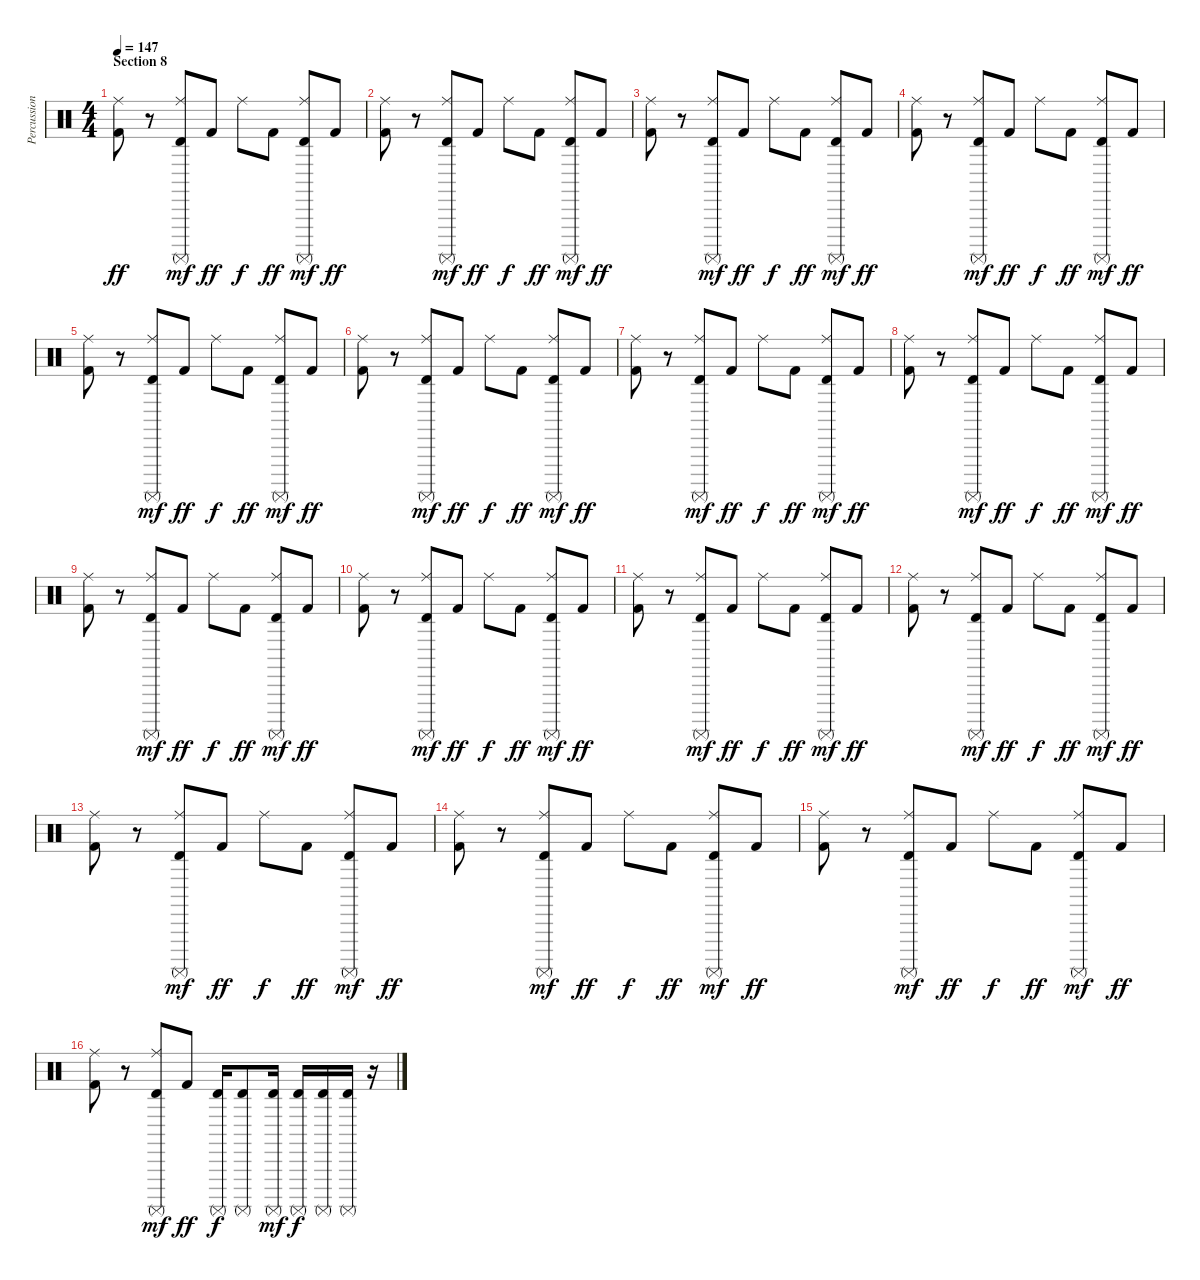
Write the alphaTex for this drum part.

\track ("Percussion" "Percussion") {instrument percussion}
\staff {score}
\articulation defaults
\ts (4 4)
\section ("" "Section 8")
\tempo 147
\clef neutral
\ks c
("Ride (middle)" "Kick (hit) 2").8{dy ff} r.8 ("Ride (middle)" "Surdo (mute)" "Timbale high (hit)").8{dy mf} "Kick (hit) 2".8{dy ff} "Ride (middle)".8{dy f} "Kick (hit) 2".8{dy ff} ("Ride (middle)" "Surdo (mute)" "Timbale high (hit)").8{dy mf} "Kick (hit) 2".8{dy ff} |
("Ride (middle)" "Kick (hit) 2").8 r.8 ("Ride (middle)" "Surdo (mute)" "Timbale high (hit)").8{dy mf} "Kick (hit) 2".8{dy ff} "Ride (middle)".8{dy f} "Kick (hit) 2".8{dy ff} ("Ride (middle)" "Surdo (mute)" "Timbale high (hit)").8{dy mf} "Kick (hit) 2".8{dy ff} |
("Ride (middle)" "Kick (hit) 2").8 r.8 ("Ride (middle)" "Surdo (mute)" "Timbale high (hit)").8{dy mf} "Kick (hit) 2".8{dy ff} "Ride (middle)".8{dy f} "Kick (hit) 2".8{dy ff} ("Ride (middle)" "Surdo (mute)" "Timbale high (hit)").8{dy mf} "Kick (hit) 2".8{dy ff} |
("Ride (middle)" "Kick (hit) 2").8 r.8 ("Ride (middle)" "Surdo (mute)" "Timbale high (hit)").8{dy mf} "Kick (hit) 2".8{dy ff} "Ride (middle)".8{dy f} "Kick (hit) 2".8{dy ff} ("Ride (middle)" "Surdo (mute)" "Timbale high (hit)").8{dy mf} "Kick (hit) 2".8{dy ff} |
("Ride (middle)" "Kick (hit) 2").8 r.8 ("Ride (middle)" "Surdo (mute)" "Timbale high (hit)").8{dy mf} "Kick (hit) 2".8{dy ff} "Ride (middle)".8{dy f} "Kick (hit) 2".8{dy ff} ("Ride (middle)" "Surdo (mute)" "Timbale high (hit)").8{dy mf} "Kick (hit) 2".8{dy ff} |
("Ride (middle)" "Kick (hit) 2").8 r.8 ("Ride (middle)" "Surdo (mute)" "Timbale high (hit)").8{dy mf} "Kick (hit) 2".8{dy ff} "Ride (middle)".8{dy f} "Kick (hit) 2".8{dy ff} ("Ride (middle)" "Surdo (mute)" "Timbale high (hit)").8{dy mf} "Kick (hit) 2".8{dy ff} |
("Ride (middle)" "Kick (hit) 2").8 r.8 ("Ride (middle)" "Surdo (mute)" "Timbale high (hit)").8{dy mf} "Kick (hit) 2".8{dy ff} "Ride (middle)".8{dy f} "Kick (hit) 2".8{dy ff} ("Ride (middle)" "Surdo (mute)" "Timbale high (hit)").8{dy mf} "Kick (hit) 2".8{dy ff} |
("Ride (middle)" "Kick (hit) 2").8 r.8 ("Ride (middle)" "Surdo (mute)" "Timbale high (hit)").8{dy mf} "Kick (hit) 2".8{dy ff} "Ride (middle)".8{dy f} "Kick (hit) 2".8{dy ff} ("Ride (middle)" "Surdo (mute)" "Timbale high (hit)").8{dy mf} "Kick (hit) 2".8{dy ff} |
("Ride (middle)" "Kick (hit) 2").8 r.8 ("Ride (middle)" "Surdo (mute)" "Timbale high (hit)").8{dy mf} "Kick (hit) 2".8{dy ff} "Ride (middle)".8{dy f} "Kick (hit) 2".8{dy ff} ("Ride (middle)" "Surdo (mute)" "Timbale high (hit)").8{dy mf} "Kick (hit) 2".8{dy ff} |
("Ride (middle)" "Kick (hit) 2").8 r.8 ("Ride (middle)" "Surdo (mute)" "Timbale high (hit)").8{dy mf} "Kick (hit) 2".8{dy ff} "Ride (middle)".8{dy f} "Kick (hit) 2".8{dy ff} ("Ride (middle)" "Surdo (mute)" "Timbale high (hit)").8{dy mf} "Kick (hit) 2".8{dy ff} |
("Ride (middle)" "Kick (hit) 2").8 r.8 ("Ride (middle)" "Surdo (mute)" "Timbale high (hit)").8{dy mf} "Kick (hit) 2".8{dy ff} "Ride (middle)".8{dy f} "Kick (hit) 2".8{dy ff} ("Ride (middle)" "Surdo (mute)" "Timbale high (hit)").8{dy mf} "Kick (hit) 2".8{dy ff} |
("Ride (middle)" "Kick (hit) 2").8 r.8 ("Ride (middle)" "Surdo (mute)" "Timbale high (hit)").8{dy mf} "Kick (hit) 2".8{dy ff} "Ride (middle)".8{dy f} "Kick (hit) 2".8{dy ff} ("Ride (middle)" "Surdo (mute)" "Timbale high (hit)").8{dy mf} "Kick (hit) 2".8{dy ff} |
("Ride (middle)" "Kick (hit) 2").8 r.8 ("Ride (middle)" "Surdo (mute)" "Timbale high (hit)").8{dy mf} "Kick (hit) 2".8{dy ff} "Ride (middle)".8{dy f} "Kick (hit) 2".8{dy ff} ("Ride (middle)" "Surdo (mute)" "Timbale high (hit)").8{dy mf} "Kick (hit) 2".8{dy ff} |
("Ride (middle)" "Kick (hit) 2").8 r.8 ("Ride (middle)" "Surdo (mute)" "Timbale high (hit)").8{dy mf} "Kick (hit) 2".8{dy ff} "Ride (middle)".8{dy f} "Kick (hit) 2".8{dy ff} ("Ride (middle)" "Surdo (mute)" "Timbale high (hit)").8{dy mf} "Kick (hit) 2".8{dy ff} |
("Ride (middle)" "Kick (hit) 2").8 r.8 ("Ride (middle)" "Surdo (mute)" "Timbale high (hit)").8{dy mf} "Kick (hit) 2".8{dy ff} "Ride (middle)".8{dy f} "Kick (hit) 2".8{dy ff} ("Ride (middle)" "Surdo (mute)" "Timbale high (hit)").8{dy mf} "Kick (hit) 2".8{dy ff} |
("Ride (middle)" "Kick (hit) 2").8 r.8 ("Ride (middle)" "Surdo (mute)" "Timbale high (hit)").8{dy mf} "Kick (hit) 2".8{dy ff} ("Surdo (mute)" "Timbale high (hit)").16{dy f} ("Surdo (mute)" "Timbale high (hit)").8 ("Surdo (mute)" "Timbale high (hit)").16{dy mf} ("Surdo (mute)" "Timbale high (hit)").16{dy f} ("Surdo (mute)" "Timbale high (hit)").16 ("Surdo (mute)" "Timbale high (hit)").16 r.16
